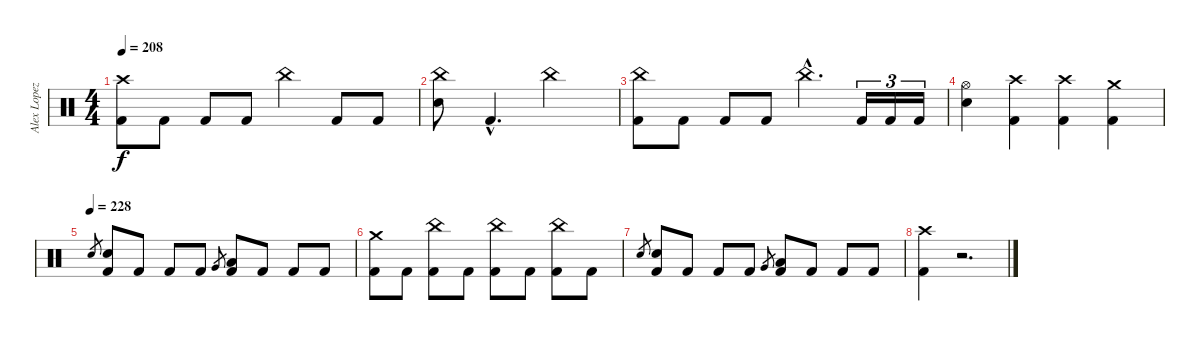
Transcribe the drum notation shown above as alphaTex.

\track ("Alex Lopez (Drums)" "Alex Lopez") {instrument percussion}
\staff {score}
\articulation defaults
\ts (4 4)
\tempo 208
\clef neutral
\ks c
("Crash high (hit)" "Kick (hit) 2").8{dy f balance 8} "Kick (hit) 2".8 "Kick (hit) 2".8 "Kick (hit) 2".8 "China (hit)".4 "Kick (hit) 2".8 "Kick (hit) 2".8 |
("China (hit)" "Snare (hit) 2").8 "Kick (hit) 2"{hac}.4{d} "China (hit)".2 |
("China (hit)" "Kick (hit) 2").8 "Kick (hit) 2".8 "Kick (hit) 2".8 "Kick (hit) 2".8 "China (hit)"{hac}.4{d} "Kick (hit) 2".16{tu (3 2)} "Kick (hit) 2".16{tu (3 2)} "Kick (hit) 2".16{tu (3 2)} |
("Hi-Hat (open)" "Snare (hit) 2").4 ("Crash high (hit)" "Kick (hit) 2").4 ("Crash high (hit)" "Kick (hit) 2").4 ("Crash medium (hit)" "Kick (hit) 2").4 |
\tempo (228)
"Snare (hit) 2".8{gr} ("Snare (hit) 2" "Kick (hit) 2").8 "Kick (hit) 2".8 "Kick (hit) 2".8 "Kick (hit) 2".8 "Very Low Tom (hit)".8{gr} ("Low Tom (hit)" "Kick (hit) 2").8 "Kick (hit) 2".8 "Kick (hit) 2".8 "Kick (hit) 2".8 |
("Crash medium (hit)" "Kick (hit) 2").8 "Kick (hit) 2".8 ("China (hit)" "Kick (hit) 2").8 "Kick (hit) 2".8 ("China (hit)" "Kick (hit) 2").8 "Kick (hit) 2".8 ("China (hit)" "Kick (hit) 2").8 "Kick (hit) 2".8 |
"Snare (hit) 2".8{gr} ("Snare (hit) 2" "Kick (hit) 2").8 "Kick (hit) 2".8 "Kick (hit) 2".8 "Kick (hit) 2".8 "Very Low Tom (hit)".8{gr} ("Low Tom (hit)" "Kick (hit) 2").8 "Kick (hit) 2".8 "Kick (hit) 2".8 "Kick (hit) 2".8 |
("Crash high (hit)" "Kick (hit) 2").4 r.2{d}
